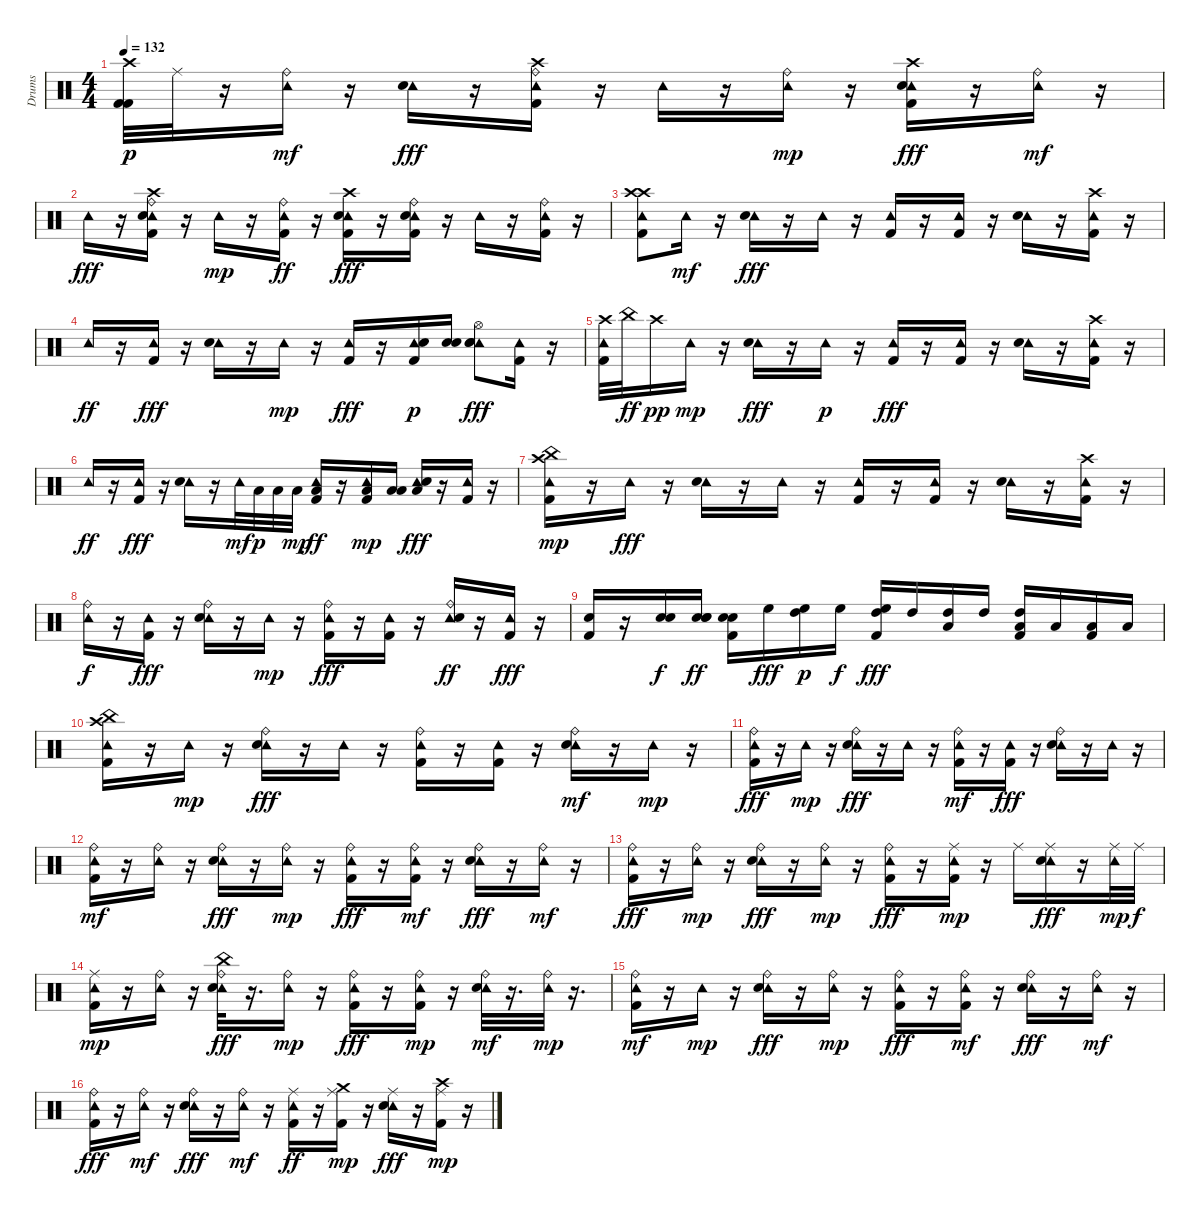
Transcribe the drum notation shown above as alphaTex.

\track ("Drums" "Drums") {instrument percussion}
\staff {score}
\articulation defaults
\ts (4 4)
\tempo 132
\clef neutral
\ks c
("Crash high (hit)" "Kick (hit) 2" "Kick (hit) 2").32{dy p} "Ride (middle)".32 r.16 ("Tambourine (hit)" "Ride (bell)").16{dy mf} r.16 ("Tambourine (hit)" "Snare (hit) 2").16{dy fff} r.16 ("Tambourine (hit)" "Crash high (hit)" "Kick (hit) 2" "Ride (bell)").16 r.16 "Tambourine (hit)".16 r.16 ("Tambourine (hit)" "Ride (bell)").16{dy mp} r.16 ("Tambourine (hit)" "Crash high (hit)" "Snare (hit) 2" "Kick (hit) 2").16{dy fff} r.16 ("Tambourine (hit)" "Ride (bell)").16{dy mf} r.16 |
"Tambourine (hit)".16{dy fff} r.16 ("Tambourine (hit)" "Crash high (hit)" "Snare (hit) 2" "Kick (hit) 2" "Ride (bell)").16 r.16 "Tambourine (hit)".16{dy mp} r.16 ("Tambourine (hit)" "Kick (hit) 2" "Ride (bell)").16{dy ff} r.16 ("Tambourine (hit)" "Crash high (hit)" "Snare (hit) 2" "Kick (hit) 2").16{dy fff} r.16 ("Tambourine (hit)" "Snare (hit) 2" "Kick (hit) 2" "Ride (bell)").16 r.16 "Tambourine (hit)".16 r.16 ("Tambourine (hit)" "Kick (hit) 2" "Ride (bell)").16 r.16 |
("Tambourine (hit)" "Crash high (hit)" "Kick (hit) 2" "Crash high (hit)").8 "Tambourine (hit)".16{dy mf} r.16 ("Tambourine (hit)" "Snare (hit) 2").16{dy fff} r.16 "Tambourine (hit)".16 r.16 ("Tambourine (hit)" "Kick (hit) 2").16 r.16 ("Tambourine (hit)" "Kick (hit) 2").16 r.16 ("Tambourine (hit)" "Snare (hit) 2").16 r.16 ("Tambourine (hit)" "Crash high (hit)" "Kick (hit) 2").16 r.16 |
"Tambourine (hit)".16{dy ff} r.16 ("Tambourine (hit)" "Kick (hit) 2").16{dy fff} r.16 ("Tambourine (hit)" "Snare (hit) 2").16 r.16 "Tambourine (hit)".16{dy mp} r.16 ("Tambourine (hit)" "Kick (hit) 2").16{dy fff} r.16 ("Tambourine (hit)" "Kick (hit) 2" "Snare (hit) 2").16{dy p} ("Snare (hit) 2" "Snare (hit) 2").16 ("Tambourine (hit)" "Snare (hit) 2" "Hi-Hat (open)" "Snare (hit) 2").8{dy fff} ("Tambourine (hit)" "Kick (hit) 2").16 r.16 |
("Tambourine (hit)" "Crash high (hit)" "Kick (hit) 2").32 "China (hit)".32{dy ff} "Crash high (hit)".16{dy pp} "Tambourine (hit)".16{dy mp} r.16 ("Tambourine (hit)" "Snare (hit) 2").16{dy fff} r.16 "Tambourine (hit)".16{dy p} r.16 ("Tambourine (hit)" "Kick (hit) 2").16{dy fff} r.16 ("Tambourine (hit)" "Kick (hit) 2").16 r.16 ("Tambourine (hit)" "Snare (hit) 2").16 r.16 ("Tambourine (hit)" "Crash high (hit)" "Kick (hit) 2").16 r.16 |
"Tambourine (hit)".16{dy ff} r.16 ("Tambourine (hit)" "Kick (hit) 2").16{dy fff} r.16 ("Tambourine (hit)" "Snare (hit) 2").16 r.16 "Tambourine (hit)".32{dy mf} "Low Tom (hit)".32{dy p} "Low Tom (hit)".32 "Low Tom (hit)".32{dy mp} ("Tambourine (hit)" "Kick (hit) 2" "Low Tom (hit)").16{dy ff} r.16 ("Tambourine (hit)" "Kick (hit) 2" "Low Floor Tom (hit)").16{dy mp} ("Low Floor Tom (hit)" "Low Floor Tom (hit)").16 ("Low Floor Tom (hit)" "Tambourine (hit)" "Snare (hit) 2").16{dy fff} r.16 ("Tambourine (hit)" "Kick (hit) 2").16 r.16 |
("Tambourine (hit)" "Crash high (hit)" "Kick (hit) 2" "China (hit)").16{dy mp} r.16 "Tambourine (hit)".16{dy fff} r.16 ("Tambourine (hit)" "Snare (hit) 2").16 r.16 "Tambourine (hit)".16 r.16 ("Tambourine (hit)" "Kick (hit) 2").16 r.16 ("Tambourine (hit)" "Kick (hit) 2").16 r.16 ("Tambourine (hit)" "Snare (hit) 2").16 r.16 ("Tambourine (hit)" "Crash high (hit)" "Kick (hit) 2").16 r.16 |
("Tambourine (hit)" "Ride (bell)").16{dy f} r.16 ("Tambourine (hit)" "Kick (hit) 2").16{dy fff} r.16 ("Tambourine (hit)" "Snare (hit) 2" "Ride (bell)").16 r.16 "Tambourine (hit)".16{dy mp} r.16 ("Tambourine (hit)" "Kick (hit) 2" "Ride (bell)").16{dy fff} r.16 ("Tambourine (hit)" "Kick (hit) 2").16 r.16 ("Tambourine (hit)" "Snare (hit) 2" "Ride (bell)").16{dy ff} r.16 ("Tambourine (hit)" "Kick (hit) 2").16{dy fff} r.16 |
("Snare (hit) 2" "Kick (hit) 2").16 r.16 ("Snare (hit) 2" "Snare (hit) 2").16{dy f} ("Snare (hit) 2" "Snare (hit) 2" "Snare (hit) 2").16{dy ff} ("Snare (hit) 2" "Kick (hit) 2" "Snare (hit) 2").16 "High Floor Tom (hit)".16{dy fff} ("High Tom (hit)" "High Floor Tom (hit)").16{dy p} "High Floor Tom (hit)".16{dy f} ("High Tom (hit)" "Kick (hit) 2" "High Floor Tom (hit)").16{dy fff} "High Tom (hit)".16 ("High Tom (hit)" "Low Tom (hit)").16 "High Tom (hit)".16 ("High Tom (hit)" "Low Tom (hit)" "Kick (hit) 2").16 "Low Tom (hit)".16 ("Low Floor Tom (hit)" "Kick (hit) 2").16 "Low Floor Tom (hit)".16 |
("Tambourine (hit)" "Crash high (hit)" "Kick (hit) 2" "China (hit)").16 r.16 "Tambourine (hit)".16{dy mp} r.16 ("Tambourine (hit)" "Snare (hit) 2" "Ride (bell)").16{dy fff} r.16 "Tambourine (hit)".16 r.16 ("Tambourine (hit)" "Kick (hit) 2" "Ride (bell)").16 r.16 ("Tambourine (hit)" "Kick (hit) 2").16 r.16 ("Tambourine (hit)" "Snare (hit) 2" "Ride (bell)").16{dy mf} r.16 "Tambourine (hit)".16{dy mp} r.16 |
("Tambourine (hit)" "Kick (hit) 2" "Ride (bell)").16{dy fff} r.16 "Tambourine (hit)".16{dy mp} r.16 ("Tambourine (hit)" "Snare (hit) 2" "Ride (bell)").16{dy fff} r.16 "Tambourine (hit)".16 r.16 ("Tambourine (hit)" "Kick (hit) 2" "Ride (bell)").16{dy mf} r.16 ("Tambourine (hit)" "Kick (hit) 2").16{dy fff} r.16 ("Tambourine (hit)" "Snare (hit) 2" "Ride (bell)").16 r.16 "Tambourine (hit)".16 r.16 |
("Tambourine (hit)" "Kick (hit) 2" "Ride (bell)").16{dy mf} r.16 ("Tambourine (hit)" "Ride (bell)").16 r.16 ("Tambourine (hit)" "Snare (hit) 2" "Ride (bell)").16{dy fff} r.16 ("Tambourine (hit)" "Ride (bell)").16{dy mp} r.16 ("Tambourine (hit)" "Kick (hit) 2" "Ride (bell)").16{dy fff} r.16 ("Tambourine (hit)" "Kick (hit) 2" "Ride (bell)").16{dy mf} r.16 ("Tambourine (hit)" "Snare (hit) 2" "Ride (bell)").16{dy fff} r.16 ("Tambourine (hit)" "Ride (bell)").16{dy mf} r.16 |
("Tambourine (hit)" "Kick (hit) 2" "Ride (bell)").16{dy fff} r.16 ("Tambourine (hit)" "Ride (bell)").16{dy mp} r.16 ("Tambourine (hit)" "Snare (hit) 2" "Ride (bell)").16{dy fff} r.16 ("Tambourine (hit)" "Ride (bell)").16{dy mp} r.16 ("Tambourine (hit)" "Kick (hit) 2" "Ride (bell)").16{dy fff} r.16 ("Tambourine (hit)" "Kick (hit) 2" "Ride (middle)").16{dy mp} r.16 "Ride (middle)".16 ("Ride (middle)" "Tambourine (hit)" "Snare (hit) 2").16{dy fff} r.16 ("Tambourine (hit)" "Ride (middle)").32{dy mp} "Ride (middle)".32{dy f} |
("Tambourine (hit)" "Kick (hit) 2" "Ride (middle)").16{dy mp} r.16 ("Tambourine (hit)" "Ride (bell)").16 r.16 ("Tambourine (hit)" "Snare (hit) 2" "China (hit)" "Ride (bell)").32{dy fff} r.16{d} ("Tambourine (hit)" "Ride (bell)").16{dy mp} r.16 ("Tambourine (hit)" "Kick (hit) 2" "Ride (bell)").16{dy fff} r.16 ("Tambourine (hit)" "Kick (hit) 2" "Ride (bell)").16{dy mp} r.16 ("Tambourine (hit)" "Snare (hit) 2" "Ride (bell)").32{dy mf} r.16{d} ("Tambourine (hit)" "Ride (bell)").32{dy mp} r.16{d} |
("Tambourine (hit)" "Kick (hit) 2" "Ride (bell)").16{dy mf} r.16 "Tambourine (hit)".16{dy mp} r.16 ("Tambourine (hit)" "Snare (hit) 2" "Ride (bell)").16{dy fff} r.16 ("Tambourine (hit)" "Ride (bell)").16{dy mp} r.16 ("Tambourine (hit)" "Kick (hit) 2" "Ride (bell)").16{dy fff} r.16 ("Tambourine (hit)" "Kick (hit) 2" "Ride (bell)").16{dy mf} r.16 ("Tambourine (hit)" "Snare (hit) 2" "Ride (bell)").16{dy fff} r.16 ("Tambourine (hit)" "Ride (bell)").16{dy mf} r.16 |
("Tambourine (hit)" "Kick (hit) 2" "Ride (bell)").16{dy fff} r.16 ("Tambourine (hit)" "Ride (bell)").16{dy mf} r.16 ("Tambourine (hit)" "Snare (hit) 2" "Ride (bell)").16{dy fff} r.16 ("Tambourine (hit)" "Ride (bell)").16{dy mf} r.16 ("Tambourine (hit)" "Kick (hit) 2" "Ride (middle)").16{dy ff} r.16 ("Crash medium (hit)" "Kick (hit) 2" "Ride (middle)").16{dy mp} r.16 ("Tambourine (hit)" "Snare (hit) 2" "Ride (middle)").16{dy fff} r.16 ("Crash high (hit)" "Kick (hit) 2" "Ride (middle)").16{dy mp} r.16
